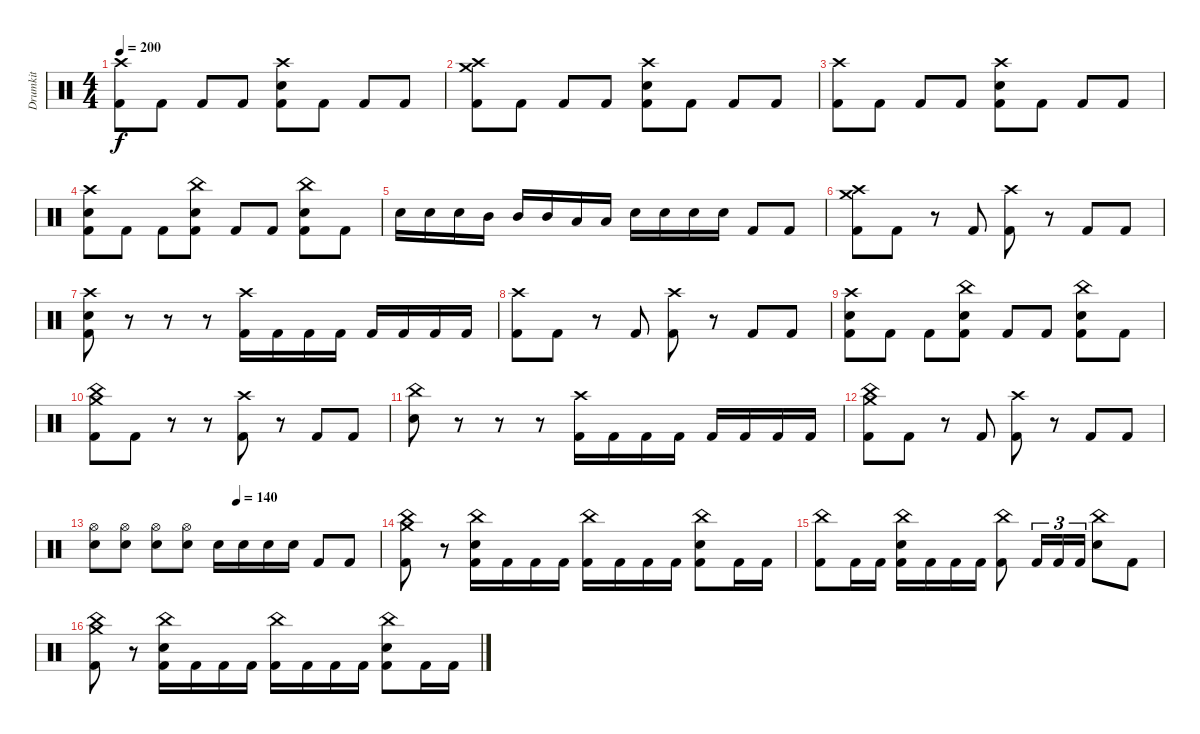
\track ("Drumkit" "Drumkit") {instrument percussion}
\staff {score}
\articulation defaults
\ts (4 4)
\tempo 200
\clef neutral
\ks c
("Crash high (hit)" "Kick (hit) 2").8{dy f} "Kick (hit) 2".8 "Kick (hit) 2".8 "Kick (hit) 2".8 ("Crash high (hit)" "Electric Snare (hit)" "Kick (hit) 2").8 "Kick (hit) 2".8 "Kick (hit) 2".8 "Kick (hit) 2".8 |
("Crash medium (hit)" "Crash high (hit)" "Kick (hit) 2").8 "Kick (hit) 2".8 "Kick (hit) 2".8 "Kick (hit) 2".8 ("Crash high (hit)" "Electric Snare (hit)" "Kick (hit) 2").8 "Kick (hit) 2".8 "Kick (hit) 2".8 "Kick (hit) 2".8 |
("Crash high (hit)" "Kick (hit) 2").8 "Kick (hit) 2".8 "Kick (hit) 2".8 "Kick (hit) 2".8 ("Crash high (hit)" "Electric Snare (hit)" "Kick (hit) 2").8 "Kick (hit) 2".8 "Kick (hit) 2".8 "Kick (hit) 2".8 |
("Crash high (hit)" "Electric Snare (hit)" "Kick (hit) 2").8 "Kick (hit) 2".8 "Kick (hit) 2".8 ("China (hit)" "Electric Snare (hit)" "Kick (hit) 2").8 "Kick (hit) 2".8 "Kick (hit) 2".8 ("China (hit)" "Electric Snare (hit)" "Kick (hit) 2").8 "Kick (hit) 2".8 |
"Electric Snare (hit)".16 "Electric Snare (hit)".16 "Electric Snare (hit)".16 "Mid Tom (hit)".16 "Mid Tom (hit)".16 "Mid Tom (hit)".16 "Low Tom (hit)".16 "Low Tom (hit)".16 "Electric Snare (hit)".16 "Electric Snare (hit)".16 "Electric Snare (hit)".16 "Electric Snare (hit)".16 "Kick (hit) 2".8 "Kick (hit) 2".8 |
("Crash medium (hit)" "Crash high (hit)" "Kick (hit) 2").8 "Kick (hit) 2".8 r.8 "Kick (hit) 2".8 ("Crash high (hit)" "Kick (hit) 2").8 r.8 "Kick (hit) 2".8 "Kick (hit) 2".8 |
("Crash high (hit)" "Electric Snare (hit)" "Kick (hit) 2").8 r.8 r.8 r.8 ("Crash high (hit)" "Kick (hit) 2").16 "Kick (hit) 2".16 "Kick (hit) 2".16 "Kick (hit) 2".16 "Kick (hit) 2".16 "Kick (hit) 2".16 "Kick (hit) 2".16 "Kick (hit) 2".16 |
("Crash high (hit)" "Kick (hit) 2").8 "Kick (hit) 2".8 r.8 "Kick (hit) 2".8 ("Crash high (hit)" "Kick (hit) 2").8 r.8 "Kick (hit) 2".8 "Kick (hit) 2".8 |
("Crash high (hit)" "Electric Snare (hit)" "Kick (hit) 2").8 "Kick (hit) 2".8 "Kick (hit) 2".8 ("China (hit)" "Electric Snare (hit)" "Kick (hit) 2").8 "Kick (hit) 2".8 "Kick (hit) 2".8 ("China (hit)" "Electric Snare (hit)" "Kick (hit) 2").8 "Kick (hit) 2".8 |
("Crash medium (hit)" "China (hit)" "Kick (hit) 2").8 "Kick (hit) 2".8 r.8 r.8 ("Crash high (hit)" "Kick (hit) 2").8 r.8 "Kick (hit) 2".8 "Kick (hit) 2".8 |
("China (hit)" "Electric Snare (hit)").8 r.8 r.8 r.8 ("Crash high (hit)" "Kick (hit) 2").16 "Kick (hit) 2".16 "Kick (hit) 2".16 "Kick (hit) 2".16 "Kick (hit) 2".16 "Kick (hit) 2".16 "Kick (hit) 2".16 "Kick (hit) 2".16 |
("Crash medium (hit)" "China (hit)" "Kick (hit) 2").8 "Kick (hit) 2".8 r.8 "Kick (hit) 2".8 ("Crash high (hit)" "Kick (hit) 2").8 r.8 "Kick (hit) 2".8 "Kick (hit) 2".8 |
\tempo (140 0.5)
("Hi-Hat (open)" "Electric Snare (hit)").8 ("Hi-Hat (open)" "Electric Snare (hit)").8 ("Hi-Hat (open)" "Electric Snare (hit)").8 ("Hi-Hat (open)" "Electric Snare (hit)").8 "Electric Snare (hit)".16 "Electric Snare (hit)".16 "Electric Snare (hit)".16 "Electric Snare (hit)".16 "Kick (hit) 2".8 "Kick (hit) 2".8 |
("Crash medium (hit)" "China (hit)" "Kick (hit) 2").8 r.8 ("China (hit)" "Electric Snare (hit)" "Kick (hit) 2").16 "Kick (hit) 2".16 "Kick (hit) 2".16 "Kick (hit) 2".16 ("China (hit)" "Kick (hit) 2").16 "Kick (hit) 2".16 "Kick (hit) 2".16 "Kick (hit) 2".16 ("China (hit)" "Electric Snare (hit)" "Kick (hit) 2").8 "Kick (hit) 2".16 "Kick (hit) 2".16 |
("China (hit)" "Kick (hit) 2").8 "Kick (hit) 2".16 "Kick (hit) 2".16 ("China (hit)" "Electric Snare (hit)" "Kick (hit) 2").16 "Kick (hit) 2".16 "Kick (hit) 2".16 "Kick (hit) 2".16 ("China (hit)" "Kick (hit) 2").8 "Kick (hit) 2".16{tu (3 2)} "Kick (hit) 2".16{tu (3 2)} "Kick (hit) 2".16{tu (3 2)} ("China (hit)" "Electric Snare (hit)").8 "Kick (hit) 2".8 |
("Crash medium (hit)" "China (hit)" "Kick (hit) 2").8 r.8 ("China (hit)" "Electric Snare (hit)" "Kick (hit) 2").16 "Kick (hit) 2".16 "Kick (hit) 2".16 "Kick (hit) 2".16 ("China (hit)" "Kick (hit) 2").16 "Kick (hit) 2".16 "Kick (hit) 2".16 "Kick (hit) 2".16 ("China (hit)" "Electric Snare (hit)" "Kick (hit) 2").8 "Kick (hit) 2".16 "Kick (hit) 2".16
